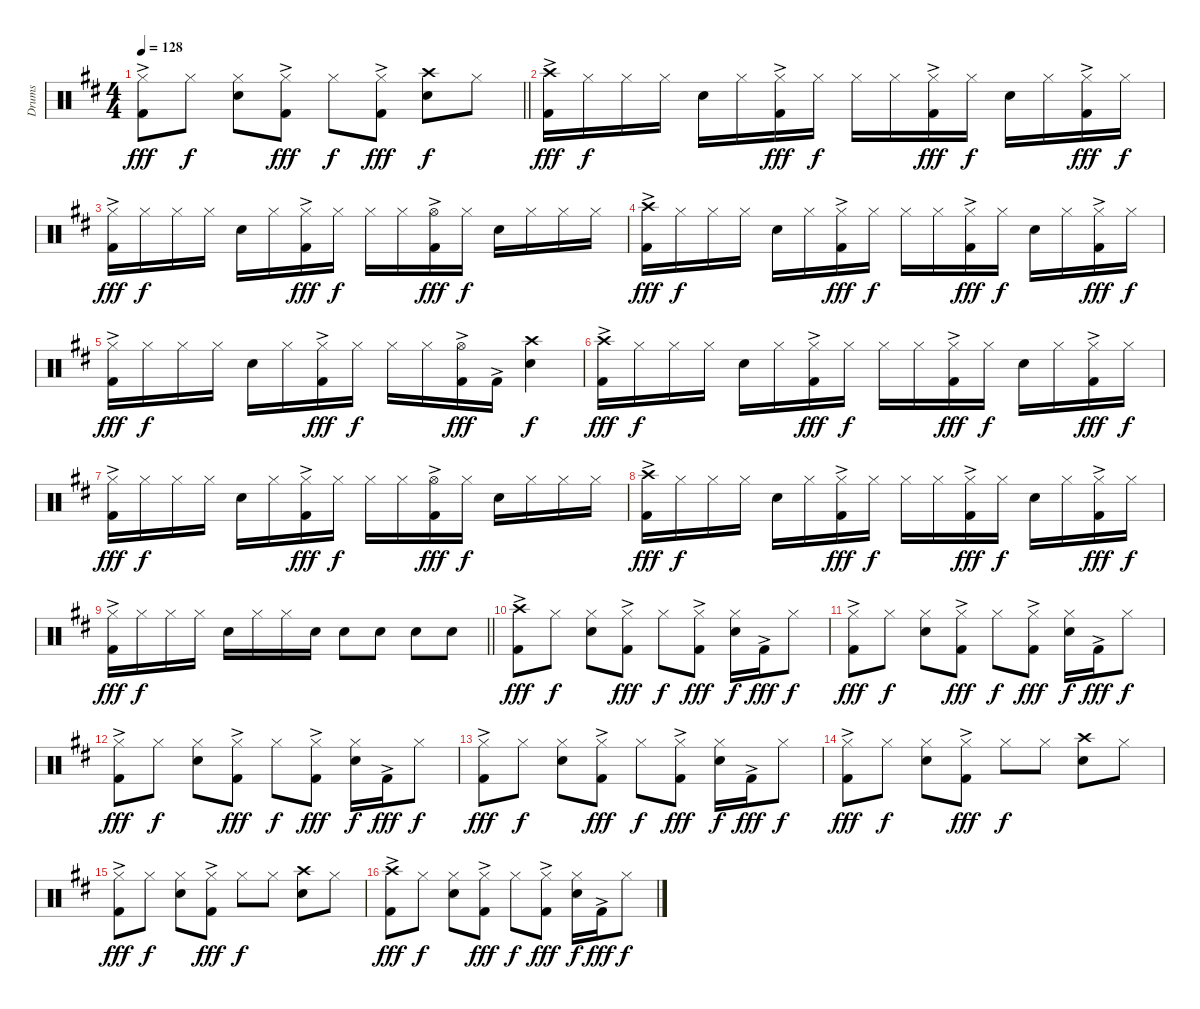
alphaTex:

\track ("Drums" "Drums") {instrument percussion}
\staff {score}
\articulation defaults
\ts (4 4)
\tempo 128
\clef neutral
\barLineRight lightlight
\ks d
("Hi-Hat (closed)" "Kick (hit) 2"{ac}).8{dy fff} "Hi-Hat (closed)".8{dy f} ("Hi-Hat (closed)" "Snare (hit) 2").8 ("Hi-Hat (closed)" "Kick (hit) 2"{ac}).8{dy fff} "Hi-Hat (closed)".8{dy f} ("Hi-Hat (closed)" "Kick (hit) 2"{ac}).8{dy fff} ("Crash high (hit)" "Snare (hit) 2").8{dy f} "Hi-Hat (closed)".8 |
("Crash high (hit)" "Kick (hit) 2"{ac}).16{dy fff} "Hi-Hat (closed)".16{dy f} "Hi-Hat (closed)".16 "Hi-Hat (closed)".16 "Snare (hit) 2".16 "Hi-Hat (closed)".16 ("Hi-Hat (closed)" "Kick (hit) 2"{ac}).16{dy fff} "Hi-Hat (closed)".16{dy f} "Hi-Hat (closed)".16 "Hi-Hat (closed)".16 ("Hi-Hat (closed)" "Kick (hit) 2"{ac}).16{dy fff} "Hi-Hat (closed)".16{dy f} "Snare (hit) 2".16 "Hi-Hat (closed)".16 ("Hi-Hat (closed)" "Kick (hit) 2"{ac}).16{dy fff} "Hi-Hat (closed)".16{dy f} |
("Hi-Hat (closed)" "Kick (hit) 2"{ac}).16{dy fff} "Hi-Hat (closed)".16{dy f} "Hi-Hat (closed)".16 "Hi-Hat (closed)".16 "Snare (hit) 2".16 "Hi-Hat (closed)".16 ("Hi-Hat (closed)" "Kick (hit) 2"{ac}).16{dy fff} "Hi-Hat (closed)".16{dy f} "Hi-Hat (closed)".16 "Hi-Hat (closed)".16 ("Hi-Hat (open)" "Kick (hit) 2"{ac}).16{dy fff} "Hi-Hat (closed)".16{dy f} "Snare (hit) 2".16 "Hi-Hat (closed)".16 "Hi-Hat (closed)".16 "Hi-Hat (closed)".16 |
("Crash high (hit)" "Kick (hit) 2"{ac}).16{dy fff} "Hi-Hat (closed)".16{dy f} "Hi-Hat (closed)".16 "Hi-Hat (closed)".16 "Snare (hit) 2".16 "Hi-Hat (closed)".16 ("Hi-Hat (closed)" "Kick (hit) 2"{ac}).16{dy fff} "Hi-Hat (closed)".16{dy f} "Hi-Hat (closed)".16 "Hi-Hat (closed)".16 ("Hi-Hat (closed)" "Kick (hit) 2"{ac}).16{dy fff} "Hi-Hat (closed)".16{dy f} "Snare (hit) 2".16 "Hi-Hat (closed)".16 ("Hi-Hat (closed)" "Kick (hit) 2"{ac}).16{dy fff} "Hi-Hat (closed)".16{dy f} |
("Hi-Hat (closed)" "Kick (hit) 2"{ac}).16{dy fff} "Hi-Hat (closed)".16{dy f} "Hi-Hat (closed)".16 "Hi-Hat (closed)".16 "Snare (hit) 2".16 "Hi-Hat (closed)".16 ("Hi-Hat (closed)" "Kick (hit) 2"{ac}).16{dy fff} "Hi-Hat (closed)".16{dy f} "Hi-Hat (closed)".16 "Hi-Hat (closed)".16 ("Hi-Hat (open)" "Kick (hit) 2"{ac}).16{dy fff} "Kick (hit) 2"{ac}.16 ("Crash high (hit)" "Snare (hit) 2").4{dy f} |
("Crash high (hit)" "Kick (hit) 2"{ac}).16{dy fff} "Hi-Hat (closed)".16{dy f} "Hi-Hat (closed)".16 "Hi-Hat (closed)".16 "Snare (hit) 2".16 "Hi-Hat (closed)".16 ("Hi-Hat (closed)" "Kick (hit) 2"{ac}).16{dy fff} "Hi-Hat (closed)".16{dy f} "Hi-Hat (closed)".16 "Hi-Hat (closed)".16 ("Hi-Hat (closed)" "Kick (hit) 2"{ac}).16{dy fff} "Hi-Hat (closed)".16{dy f} "Snare (hit) 2".16 "Hi-Hat (closed)".16 ("Hi-Hat (closed)" "Kick (hit) 2"{ac}).16{dy fff} "Hi-Hat (closed)".16{dy f} |
("Hi-Hat (closed)" "Kick (hit) 2"{ac}).16{dy fff} "Hi-Hat (closed)".16{dy f} "Hi-Hat (closed)".16 "Hi-Hat (closed)".16 "Snare (hit) 2".16 "Hi-Hat (closed)".16 ("Hi-Hat (closed)" "Kick (hit) 2"{ac}).16{dy fff} "Hi-Hat (closed)".16{dy f} "Hi-Hat (closed)".16 "Hi-Hat (closed)".16 ("Hi-Hat (open)" "Kick (hit) 2"{ac}).16{dy fff} "Hi-Hat (closed)".16{dy f} "Snare (hit) 2".16 "Hi-Hat (closed)".16 "Hi-Hat (closed)".16 "Hi-Hat (closed)".16 |
("Crash high (hit)" "Kick (hit) 2"{ac}).16{dy fff} "Hi-Hat (closed)".16{dy f} "Hi-Hat (closed)".16 "Hi-Hat (closed)".16 "Snare (hit) 2".16 "Hi-Hat (closed)".16 ("Hi-Hat (closed)" "Kick (hit) 2"{ac}).16{dy fff} "Hi-Hat (closed)".16{dy f} "Hi-Hat (closed)".16 "Hi-Hat (closed)".16 ("Hi-Hat (closed)" "Kick (hit) 2"{ac}).16{dy fff} "Hi-Hat (closed)".16{dy f} "Snare (hit) 2".16 "Hi-Hat (closed)".16 ("Hi-Hat (closed)" "Kick (hit) 2"{ac}).16{dy fff} "Hi-Hat (closed)".16{dy f} |
\barLineRight lightlight
("Hi-Hat (closed)" "Kick (hit) 2"{ac}).16{dy fff} "Hi-Hat (closed)".16{dy f} "Hi-Hat (closed)".16 "Hi-Hat (closed)".16 "Snare (hit) 2".16 "Hi-Hat (closed)".16 "Hi-Hat (closed)".16 "Snare (hit) 2".16 "Snare (hit) 2".8 "Snare (hit) 2".8 "Snare (hit) 2".8 "Snare (hit) 2".8 |
("Crash high (hit)" "Kick (hit) 2"{ac}).8{dy fff} "Hi-Hat (closed)".8{dy f} ("Hi-Hat (closed)" "Snare (hit) 2").8 ("Hi-Hat (closed)" "Kick (hit) 2"{ac}).8{dy fff} "Hi-Hat (closed)".8{dy f} ("Hi-Hat (closed)" "Kick (hit) 2"{ac}).8{dy fff} ("Hi-Hat (closed)" "Snare (hit) 2").16{dy f} "Kick (hit) 2"{ac}.16{dy fff} "Hi-Hat (closed)".8{dy f} |
("Hi-Hat (closed)" "Kick (hit) 2"{ac}).8{dy fff} "Hi-Hat (closed)".8{dy f} ("Hi-Hat (closed)" "Snare (hit) 2").8 ("Hi-Hat (closed)" "Kick (hit) 2"{ac}).8{dy fff} "Hi-Hat (closed)".8{dy f} ("Hi-Hat (closed)" "Kick (hit) 2"{ac}).8{dy fff} ("Hi-Hat (closed)" "Snare (hit) 2").16{dy f} "Kick (hit) 2"{ac}.16{dy fff} "Hi-Hat (closed)".8{dy f} |
("Hi-Hat (closed)" "Kick (hit) 2"{ac}).8{dy fff} "Hi-Hat (closed)".8{dy f} ("Hi-Hat (closed)" "Snare (hit) 2").8 ("Hi-Hat (closed)" "Kick (hit) 2"{ac}).8{dy fff} "Hi-Hat (closed)".8{dy f} ("Hi-Hat (closed)" "Kick (hit) 2"{ac}).8{dy fff} ("Hi-Hat (closed)" "Snare (hit) 2").16{dy f} "Kick (hit) 2"{ac}.16{dy fff} "Hi-Hat (closed)".8{dy f} |
("Hi-Hat (closed)" "Kick (hit) 2"{ac}).8{dy fff} "Hi-Hat (closed)".8{dy f} ("Hi-Hat (closed)" "Snare (hit) 2").8 ("Hi-Hat (closed)" "Kick (hit) 2"{ac}).8{dy fff} "Hi-Hat (closed)".8{dy f} ("Hi-Hat (closed)" "Kick (hit) 2"{ac}).8{dy fff} ("Hi-Hat (closed)" "Snare (hit) 2").16{dy f} "Kick (hit) 2"{ac}.16{dy fff} "Hi-Hat (closed)".8{dy f} |
("Hi-Hat (closed)" "Kick (hit) 2"{ac}).8{dy fff} "Hi-Hat (closed)".8{dy f} ("Hi-Hat (closed)" "Snare (hit) 2").8 ("Hi-Hat (closed)" "Kick (hit) 2"{ac}).8{dy fff} "Hi-Hat (closed)".8{dy f} "Hi-Hat (closed)".8 ("Crash high (hit)" "Snare (hit) 2").8 "Hi-Hat (closed)".8 |
("Hi-Hat (closed)" "Kick (hit) 2"{ac}).8{dy fff} "Hi-Hat (closed)".8{dy f} ("Hi-Hat (closed)" "Snare (hit) 2").8 ("Hi-Hat (closed)" "Kick (hit) 2"{ac}).8{dy fff} "Hi-Hat (closed)".8{dy f} "Hi-Hat (closed)".8 ("Crash high (hit)" "Snare (hit) 2").8 "Hi-Hat (closed)".8 |
("Crash high (hit)" "Kick (hit) 2"{ac}).8{dy fff} "Hi-Hat (closed)".8{dy f} ("Hi-Hat (closed)" "Snare (hit) 2").8 ("Hi-Hat (closed)" "Kick (hit) 2"{ac}).8{dy fff} "Hi-Hat (closed)".8{dy f} ("Hi-Hat (closed)" "Kick (hit) 2"{ac}).8{dy fff} ("Hi-Hat (closed)" "Snare (hit) 2").16{dy f} "Kick (hit) 2"{ac}.16{dy fff} "Hi-Hat (closed)".8{dy f}
